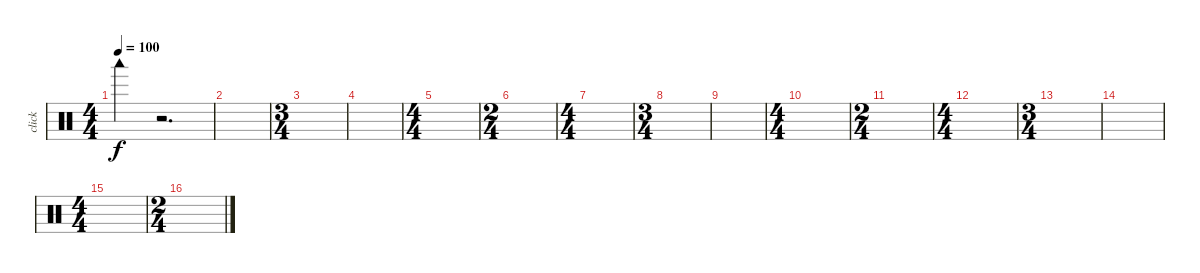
\track ("click" "click") {mute instrument percussion}
\staff {score}
\articulation defaults
\ts (4 4)
\tempo 100
\clef neutral
\ks c "Woodblock low (hit)".4{dy f}
r.2{d} |
|
\ts (3 4)
|
|
\ts (4 4)
|
\ts (2 4)
|
\ts (4 4)
|
\ts (3 4)
|
|
\ts (4 4)
|
\ts (2 4)
|
\ts (4 4)
|
\ts (3 4)
|
|
\ts (4 4)
|
\ts (2 4)
